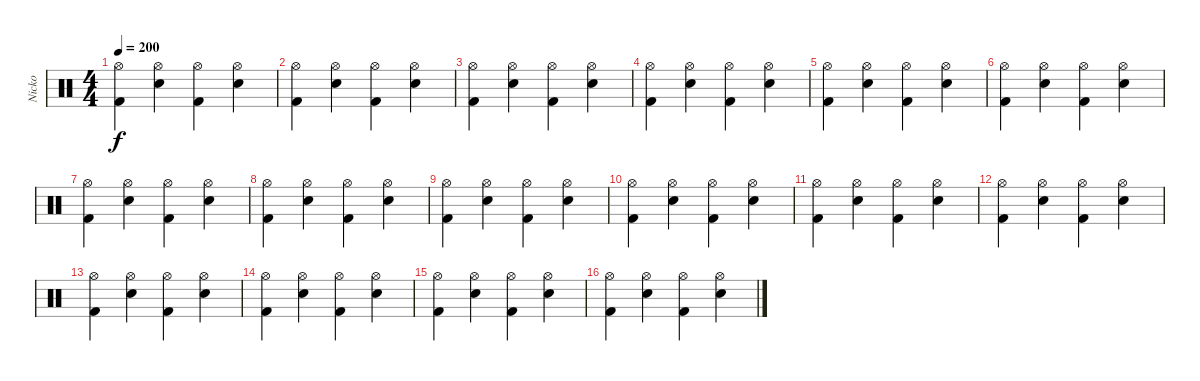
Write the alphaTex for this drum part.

\track ("Nicko" "Nicko") {instrument percussion}
\staff {score}
\articulation defaults
\ts (4 4)
\tempo 200
\clef neutral
\ks c
("Hi-Hat (open)" "Kick (hit) 2").4{dy f} ("Hi-Hat (open)" "Electric Snare (hit)").4 ("Hi-Hat (open)" "Kick (hit) 2").4 ("Hi-Hat (open)" "Electric Snare (hit)").4 |
("Hi-Hat (open)" "Kick (hit) 2").4 ("Hi-Hat (open)" "Electric Snare (hit)").4 ("Hi-Hat (open)" "Kick (hit) 2").4 ("Hi-Hat (open)" "Electric Snare (hit)").4 |
("Hi-Hat (open)" "Kick (hit) 2").4 ("Hi-Hat (open)" "Electric Snare (hit)").4 ("Hi-Hat (open)" "Kick (hit) 2").4 ("Hi-Hat (open)" "Electric Snare (hit)").4 |
("Hi-Hat (open)" "Kick (hit) 2").4 ("Hi-Hat (open)" "Electric Snare (hit)").4 ("Hi-Hat (open)" "Kick (hit) 2").4 ("Hi-Hat (open)" "Electric Snare (hit)").4 |
("Hi-Hat (open)" "Kick (hit) 2").4 ("Hi-Hat (open)" "Electric Snare (hit)").4 ("Hi-Hat (open)" "Kick (hit) 2").4 ("Hi-Hat (open)" "Electric Snare (hit)").4 |
("Hi-Hat (open)" "Kick (hit) 2").4 ("Hi-Hat (open)" "Electric Snare (hit)").4 ("Hi-Hat (open)" "Kick (hit) 2").4 ("Hi-Hat (open)" "Electric Snare (hit)").4 |
("Hi-Hat (open)" "Kick (hit) 2").4 ("Hi-Hat (open)" "Electric Snare (hit)").4 ("Hi-Hat (open)" "Kick (hit) 2").4 ("Hi-Hat (open)" "Electric Snare (hit)").4 |
("Hi-Hat (open)" "Kick (hit) 2").4 ("Hi-Hat (open)" "Electric Snare (hit)").4 ("Hi-Hat (open)" "Kick (hit) 2").4 ("Hi-Hat (open)" "Electric Snare (hit)").4 |
("Hi-Hat (open)" "Kick (hit) 2").4 ("Hi-Hat (open)" "Electric Snare (hit)").4 ("Hi-Hat (open)" "Kick (hit) 2").4 ("Hi-Hat (open)" "Electric Snare (hit)").4 |
("Hi-Hat (open)" "Kick (hit) 2").4 ("Hi-Hat (open)" "Electric Snare (hit)").4 ("Hi-Hat (open)" "Kick (hit) 2").4 ("Hi-Hat (open)" "Electric Snare (hit)").4 |
("Hi-Hat (open)" "Kick (hit) 2").4 ("Hi-Hat (open)" "Electric Snare (hit)").4 ("Hi-Hat (open)" "Kick (hit) 2").4 ("Hi-Hat (open)" "Electric Snare (hit)").4 |
("Hi-Hat (open)" "Kick (hit) 2").4 ("Hi-Hat (open)" "Electric Snare (hit)").4 ("Hi-Hat (open)" "Kick (hit) 2").4 ("Hi-Hat (open)" "Electric Snare (hit)").4 |
("Hi-Hat (open)" "Kick (hit) 2").4 ("Hi-Hat (open)" "Electric Snare (hit)").4 ("Hi-Hat (open)" "Kick (hit) 2").4 ("Hi-Hat (open)" "Electric Snare (hit)").4 |
("Hi-Hat (open)" "Kick (hit) 2").4 ("Hi-Hat (open)" "Electric Snare (hit)").4 ("Hi-Hat (open)" "Kick (hit) 2").4 ("Hi-Hat (open)" "Electric Snare (hit)").4 |
("Hi-Hat (open)" "Kick (hit) 2").4 ("Hi-Hat (open)" "Electric Snare (hit)").4 ("Hi-Hat (open)" "Kick (hit) 2").4 ("Hi-Hat (open)" "Electric Snare (hit)").4 |
("Hi-Hat (open)" "Kick (hit) 2").4 ("Hi-Hat (open)" "Electric Snare (hit)").4 ("Hi-Hat (open)" "Kick (hit) 2").4 ("Hi-Hat (open)" "Electric Snare (hit)").4
